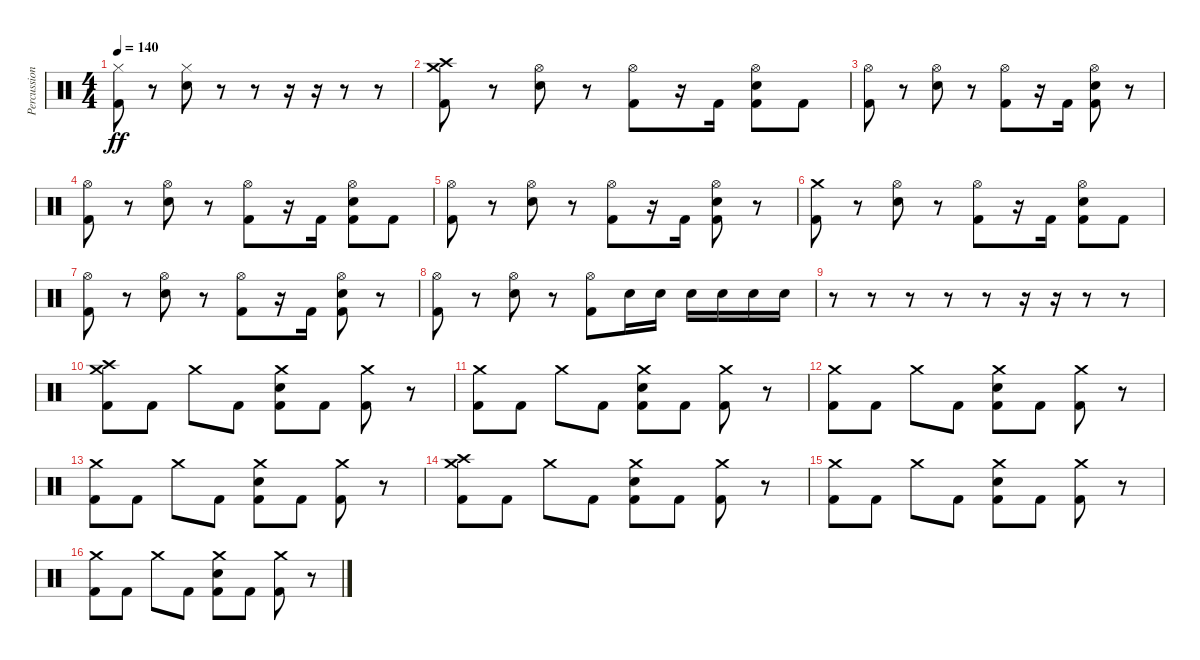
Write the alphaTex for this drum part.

\track ("Percussion" "Percussion") {instrument percussion}
\staff {score}
\articulation defaults
\ts (4 4)
\tempo 140
\clef neutral
\ks c
("Hi-Hat (closed)" "Kick (hit) 2").8{dy ff} r.8 ("Hi-Hat (closed)" "Electric Snare (hit)").8 r.8 r.8 r.16 r.16 r.8 r.8 |
("Crash medium (hit)" "Crash high (hit)" "Kick (hit) 2").8 r.8 ("Hi-Hat (open)" "Electric Snare (hit)").8 r.8 ("Hi-Hat (open)" "Kick (hit) 2").8 r.16 "Kick (hit) 2".16 ("Hi-Hat (open)" "Electric Snare (hit)" "Kick (hit) 2").8 "Kick (hit) 2".8 |
("Hi-Hat (open)" "Kick (hit) 2").8 r.8 ("Hi-Hat (open)" "Electric Snare (hit)").8 r.8 ("Hi-Hat (open)" "Kick (hit) 2").8 r.16 "Kick (hit) 2".16 ("Hi-Hat (open)" "Electric Snare (hit)" "Kick (hit) 2").8 r.8 |
("Hi-Hat (open)" "Kick (hit) 2").8 r.8 ("Hi-Hat (open)" "Electric Snare (hit)").8 r.8 ("Hi-Hat (open)" "Kick (hit) 2").8 r.16 "Kick (hit) 2".16 ("Hi-Hat (open)" "Electric Snare (hit)" "Kick (hit) 2").8 "Kick (hit) 2".8 |
("Hi-Hat (open)" "Kick (hit) 2").8 r.8 ("Hi-Hat (open)" "Electric Snare (hit)").8 r.8 ("Hi-Hat (open)" "Kick (hit) 2").8 r.16 "Kick (hit) 2".16 ("Hi-Hat (open)" "Electric Snare (hit)" "Kick (hit) 2").8 r.8 |
("Crash medium (hit)" "Kick (hit) 2").8 r.8 ("Hi-Hat (open)" "Electric Snare (hit)").8 r.8 ("Hi-Hat (open)" "Kick (hit) 2").8 r.16 "Kick (hit) 2".16 ("Hi-Hat (open)" "Electric Snare (hit)" "Kick (hit) 2").8 "Kick (hit) 2".8 |
("Hi-Hat (open)" "Kick (hit) 2").8 r.8 ("Hi-Hat (open)" "Electric Snare (hit)").8 r.8 ("Hi-Hat (open)" "Kick (hit) 2").8 r.16 "Kick (hit) 2".16 ("Hi-Hat (open)" "Electric Snare (hit)" "Kick (hit) 2").8 r.8 |
("Hi-Hat (open)" "Kick (hit) 2").8 r.8 ("Hi-Hat (open)" "Electric Snare (hit)").8 r.8 ("Hi-Hat (open)" "Kick (hit) 2").8 "Electric Snare (hit)".16 "Electric Snare (hit)".16 "Electric Snare (hit)".16 "Electric Snare (hit)".16 "Electric Snare (hit)".16 "Electric Snare (hit)".16 |
r.8 r.8 r.8 r.8 r.8 r.16 r.16 r.8 r.8 |
("Crash medium (hit)" "Crash high (hit)" "Kick (hit) 2").8 "Kick (hit) 2".8 "Crash medium (hit)".8 "Kick (hit) 2".8 ("Crash medium (hit)" "Electric Snare (hit)" "Kick (hit) 2").8 "Kick (hit) 2".8 ("Crash medium (hit)" "Kick (hit) 2").8 r.8 |
("Crash medium (hit)" "Kick (hit) 2").8 "Kick (hit) 2".8 "Crash medium (hit)".8 "Kick (hit) 2".8 ("Crash medium (hit)" "Electric Snare (hit)" "Kick (hit) 2").8 "Kick (hit) 2".8 ("Crash medium (hit)" "Kick (hit) 2").8 r.8 |
("Crash medium (hit)" "Kick (hit) 2").8 "Kick (hit) 2".8 "Crash medium (hit)".8 "Kick (hit) 2".8 ("Crash medium (hit)" "Electric Snare (hit)" "Kick (hit) 2").8 "Kick (hit) 2".8 ("Crash medium (hit)" "Kick (hit) 2").8 r.8 |
("Crash medium (hit)" "Kick (hit) 2").8 "Kick (hit) 2".8 "Crash medium (hit)".8 "Kick (hit) 2".8 ("Crash medium (hit)" "Electric Snare (hit)" "Kick (hit) 2").8 "Kick (hit) 2".8 ("Crash medium (hit)" "Kick (hit) 2").8 r.8 |
("Crash medium (hit)" "Crash high (hit)" "Kick (hit) 2").8 "Kick (hit) 2".8 "Crash medium (hit)".8 "Kick (hit) 2".8 ("Crash medium (hit)" "Electric Snare (hit)" "Kick (hit) 2").8 "Kick (hit) 2".8 ("Crash medium (hit)" "Kick (hit) 2").8 r.8 |
("Crash medium (hit)" "Kick (hit) 2").8 "Kick (hit) 2".8 "Crash medium (hit)".8 "Kick (hit) 2".8 ("Crash medium (hit)" "Electric Snare (hit)" "Kick (hit) 2").8 "Kick (hit) 2".8 ("Crash medium (hit)" "Kick (hit) 2").8 r.8 |
("Crash medium (hit)" "Kick (hit) 2").8 "Kick (hit) 2".8 "Crash medium (hit)".8 "Kick (hit) 2".8 ("Crash medium (hit)" "Electric Snare (hit)" "Kick (hit) 2").8 "Kick (hit) 2".8 ("Crash medium (hit)" "Kick (hit) 2").8 r.8
